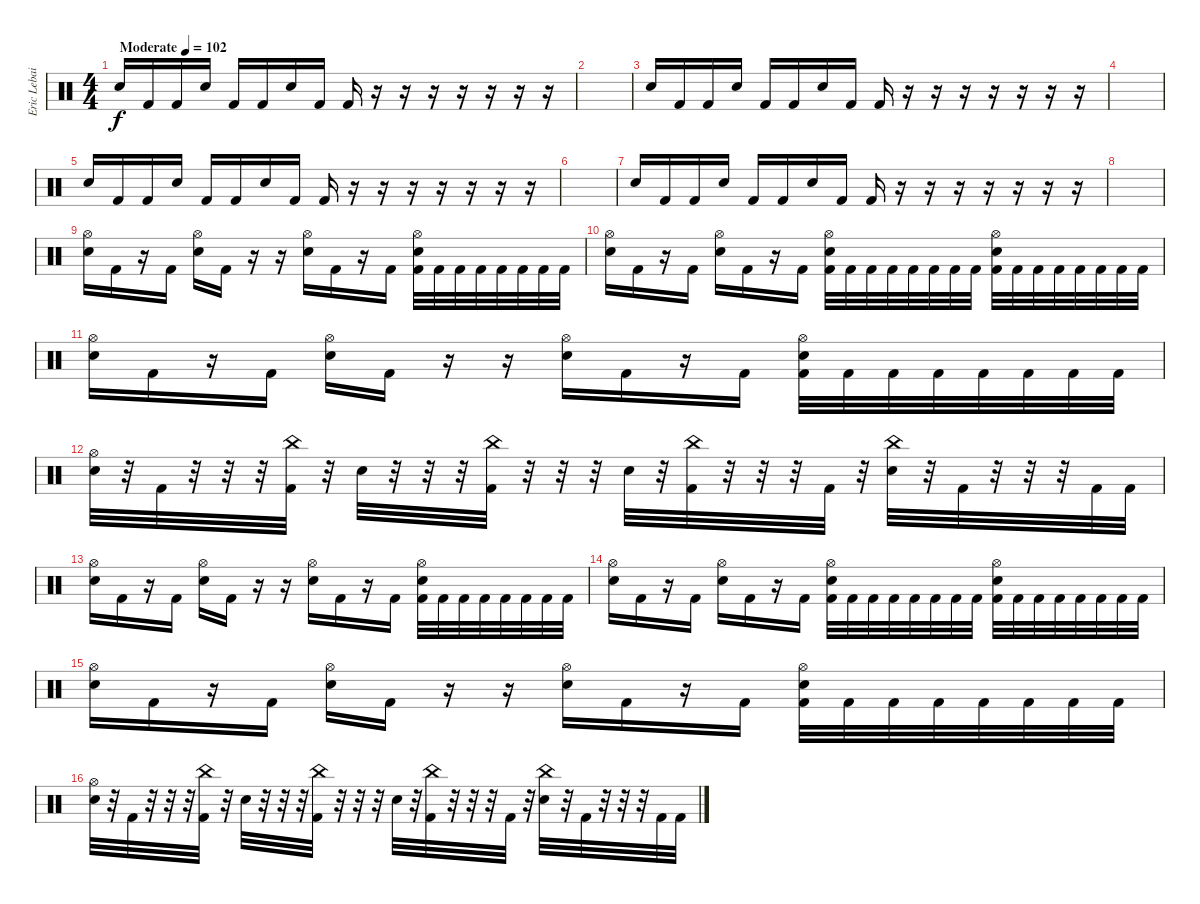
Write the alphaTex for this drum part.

\track ("Eric Lebailly" "Eric Lebai") {instrument percussion}
\staff {score}
\articulation defaults
\ts (4 4)
\tempo (102 "Moderate")
\clef neutral
\ks c "Snare (hit) 2".16{dy f} "Kick (hit) 2".16 "Kick (hit) 2".16 "Snare (hit) 2".16 "Kick (hit) 2".16 "Kick (hit) 2".16 "Snare (hit) 2".16 "Kick (hit) 2".16 "Kick (hit) 2".16
r.16 r.16 r.16 r.16 r.16 r.16 r.16 |
|
"Snare (hit) 2".16 "Kick (hit) 2".16 "Kick (hit) 2".16 "Snare (hit) 2".16 "Kick (hit) 2".16 "Kick (hit) 2".16 "Snare (hit) 2".16 "Kick (hit) 2".16 "Kick (hit) 2".16 r.16 r.16 r.16 r.16 r.16 r.16 r.16 |
|
"Snare (hit) 2".16 "Kick (hit) 2".16 "Kick (hit) 2".16 "Snare (hit) 2".16 "Kick (hit) 2".16 "Kick (hit) 2".16 "Snare (hit) 2".16 "Kick (hit) 2".16 "Kick (hit) 2".16 r.16 r.16 r.16 r.16 r.16 r.16 r.16 |
|
"Snare (hit) 2".16 "Kick (hit) 2".16 "Kick (hit) 2".16 "Snare (hit) 2".16 "Kick (hit) 2".16 "Kick (hit) 2".16 "Snare (hit) 2".16 "Kick (hit) 2".16 "Kick (hit) 2".16 r.16 r.16 r.16 r.16 r.16 r.16 r.16 |
|
("Hi-Hat (open)" "Snare (hit) 2").16 "Kick (hit) 2".16 r.16 "Kick (hit) 2".16 ("Hi-Hat (open)" "Snare (hit) 2").16 "Kick (hit) 2".16 r.16 r.16 ("Hi-Hat (open)" "Snare (hit) 2").16 "Kick (hit) 2".16 r.16 "Kick (hit) 2".16 ("Hi-Hat (open)" "Snare (hit) 2" "Kick (hit) 2").32 "Kick (hit) 2".32 "Kick (hit) 2".32 "Kick (hit) 2".32 "Kick (hit) 2".32 "Kick (hit) 2".32 "Kick (hit) 2".32 "Kick (hit) 2".32 |
("Hi-Hat (open)" "Snare (hit) 2").16 "Kick (hit) 2".16 r.16 "Kick (hit) 2".16 ("Hi-Hat (open)" "Snare (hit) 2").16 "Kick (hit) 2".16 r.16 "Kick (hit) 2".16 ("Hi-Hat (open)" "Snare (hit) 2" "Kick (hit) 2").32 "Kick (hit) 2".32 "Kick (hit) 2".32 "Kick (hit) 2".32 "Kick (hit) 2".32 "Kick (hit) 2".32 "Kick (hit) 2".32 "Kick (hit) 2".32 ("Hi-Hat (open)" "Snare (hit) 2" "Kick (hit) 2").32 "Kick (hit) 2".32 "Kick (hit) 2".32 "Kick (hit) 2".32 "Kick (hit) 2".32 "Kick (hit) 2".32 "Kick (hit) 2".32 "Kick (hit) 2".32 |
("Hi-Hat (open)" "Snare (hit) 2").16 "Kick (hit) 2".16 r.16 "Kick (hit) 2".16 ("Hi-Hat (open)" "Snare (hit) 2").16 "Kick (hit) 2".16 r.16 r.16 ("Hi-Hat (open)" "Snare (hit) 2").16 "Kick (hit) 2".16 r.16 "Kick (hit) 2".16 ("Hi-Hat (open)" "Snare (hit) 2" "Kick (hit) 2").32 "Kick (hit) 2".32 "Kick (hit) 2".32 "Kick (hit) 2".32 "Kick (hit) 2".32 "Kick (hit) 2".32 "Kick (hit) 2".32 "Kick (hit) 2".32 |
("Hi-Hat (open)" "Snare (hit) 2").32 r.32 "Kick (hit) 2".32 r.32 r.32 r.32 ("China (hit)" "Kick (hit) 2").32 r.32 "Snare (hit) 2".32 r.32 r.32 r.32 ("China (hit)" "Kick (hit) 2").32 r.32 r.32 r.32 "Snare (hit) 2".32 r.32 ("China (hit)" "Kick (hit) 2").32 r.32 r.32 r.32 "Kick (hit) 2".32 r.32 ("China (hit)" "Snare (hit) 2").32 r.32 "Kick (hit) 2".32 r.32 r.32 r.32 "Kick (hit) 2".32 "Kick (hit) 2".32 |
("Hi-Hat (open)" "Snare (hit) 2").16 "Kick (hit) 2".16 r.16 "Kick (hit) 2".16 ("Hi-Hat (open)" "Snare (hit) 2").16 "Kick (hit) 2".16 r.16 r.16 ("Hi-Hat (open)" "Snare (hit) 2").16 "Kick (hit) 2".16 r.16 "Kick (hit) 2".16 ("Hi-Hat (open)" "Snare (hit) 2" "Kick (hit) 2").32 "Kick (hit) 2".32 "Kick (hit) 2".32 "Kick (hit) 2".32 "Kick (hit) 2".32 "Kick (hit) 2".32 "Kick (hit) 2".32 "Kick (hit) 2".32 |
("Hi-Hat (open)" "Snare (hit) 2").16 "Kick (hit) 2".16 r.16 "Kick (hit) 2".16 ("Hi-Hat (open)" "Snare (hit) 2").16 "Kick (hit) 2".16 r.16 "Kick (hit) 2".16 ("Hi-Hat (open)" "Snare (hit) 2" "Kick (hit) 2").32 "Kick (hit) 2".32 "Kick (hit) 2".32 "Kick (hit) 2".32 "Kick (hit) 2".32 "Kick (hit) 2".32 "Kick (hit) 2".32 "Kick (hit) 2".32 ("Hi-Hat (open)" "Snare (hit) 2" "Kick (hit) 2").32 "Kick (hit) 2".32 "Kick (hit) 2".32 "Kick (hit) 2".32 "Kick (hit) 2".32 "Kick (hit) 2".32 "Kick (hit) 2".32 "Kick (hit) 2".32 |
("Hi-Hat (open)" "Snare (hit) 2").16 "Kick (hit) 2".16 r.16 "Kick (hit) 2".16 ("Hi-Hat (open)" "Snare (hit) 2").16 "Kick (hit) 2".16 r.16 r.16 ("Hi-Hat (open)" "Snare (hit) 2").16 "Kick (hit) 2".16 r.16 "Kick (hit) 2".16 ("Hi-Hat (open)" "Snare (hit) 2" "Kick (hit) 2").32 "Kick (hit) 2".32 "Kick (hit) 2".32 "Kick (hit) 2".32 "Kick (hit) 2".32 "Kick (hit) 2".32 "Kick (hit) 2".32 "Kick (hit) 2".32 |
("Hi-Hat (open)" "Snare (hit) 2").32 r.32 "Kick (hit) 2".32 r.32 r.32 r.32 ("China (hit)" "Kick (hit) 2").32 r.32 "Snare (hit) 2".32 r.32 r.32 r.32 ("China (hit)" "Kick (hit) 2").32 r.32 r.32 r.32 "Snare (hit) 2".32 r.32 ("China (hit)" "Kick (hit) 2").32 r.32 r.32 r.32 "Kick (hit) 2".32 r.32 ("China (hit)" "Snare (hit) 2").32 r.32 "Kick (hit) 2".32 r.32 r.32 r.32 "Kick (hit) 2".32 "Kick (hit) 2".32
